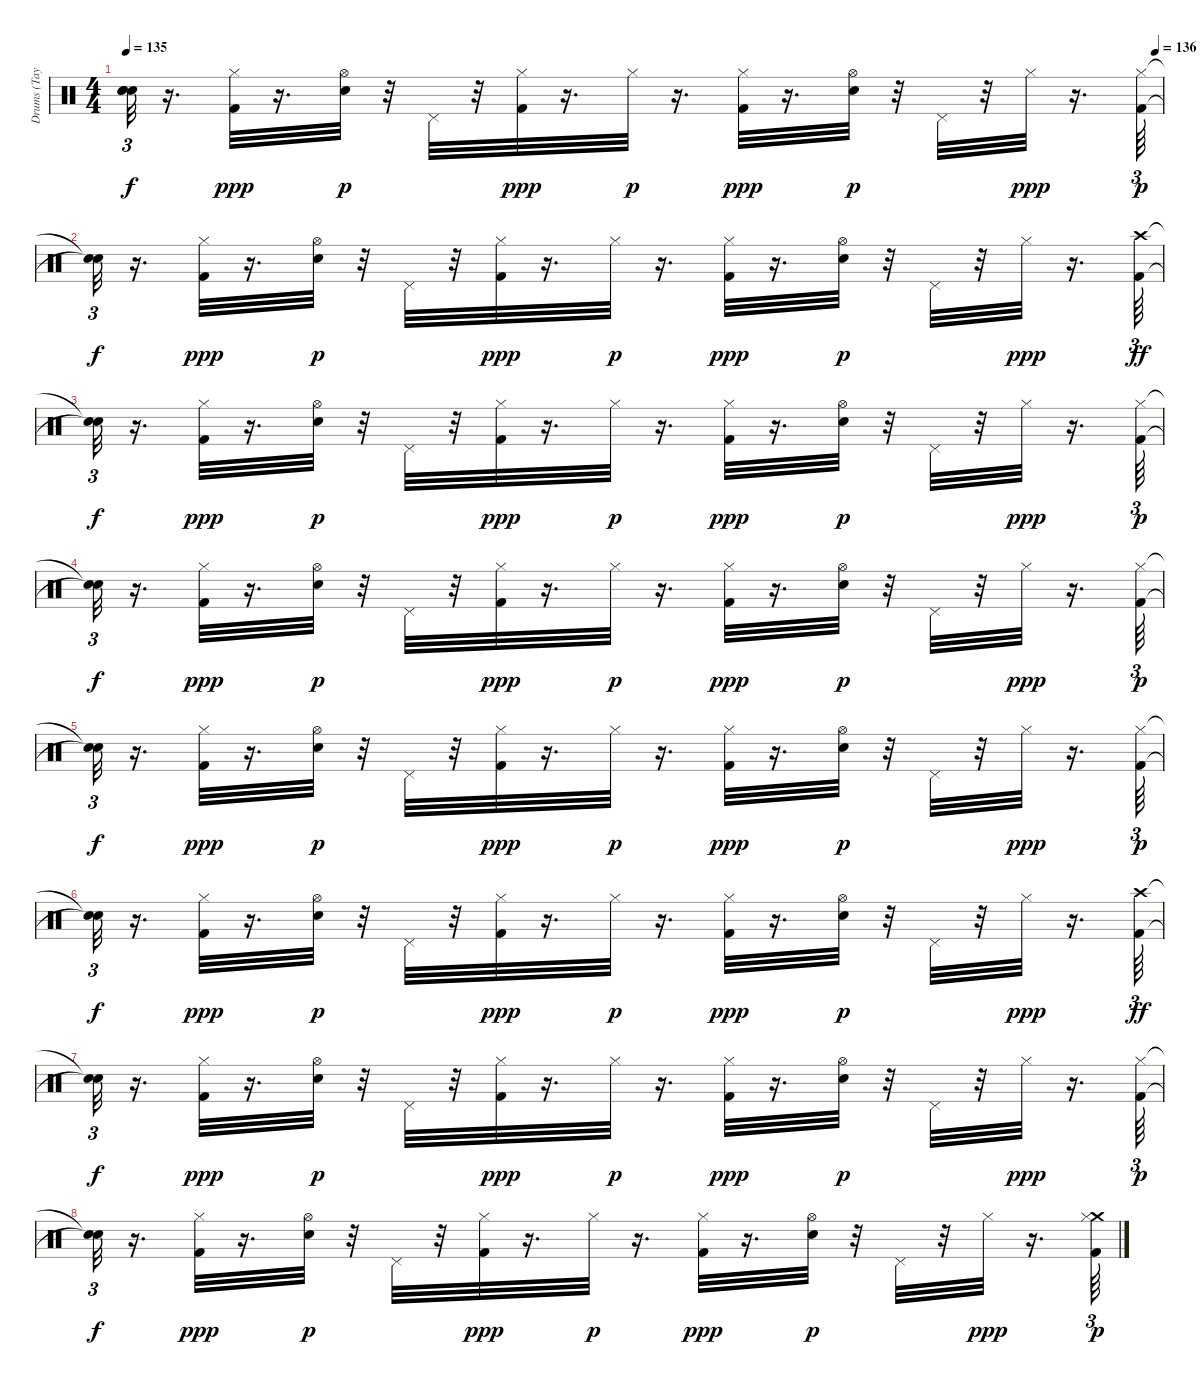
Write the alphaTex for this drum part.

\track ("Drums (Taylor)" "Drums (Tay") {instrument percussion}
\staff {score}
\articulation defaults
\ts (4 4)
\tempo 135
\tempo (136 0.99375)
\clef neutral
\ks c
("Snare (hit)"{t} "Snare (hit)"{t} "Snare (hit)"{t}).32{tu (3 2) dy f} r.16{d} ("Kick (hit) 2" "Hi-Hat (closed)").32{dy ppp} r.16{d} ("Snare (hit) 2" "Hi-Hat (open)").32{dy p} r.32 "Pedal Hi-Hat (hit)".32 r.32 ("Kick (hit) 2" "Hi-Hat (closed)").32{dy ppp} r.16{d} "Hi-Hat (closed)".32{dy p} r.16{d} ("Kick (hit) 2" "Hi-Hat (closed)").32{dy ppp} r.16{d} ("Snare (hit) 2" "Hi-Hat (open)").32{dy p} r.32 "Pedal Hi-Hat (hit)".32 r.32 "Hi-Hat (closed)".32{dy ppp} r.16{d} ("Kick (hit) 2" "Hi-Hat (closed)").64{tu (3 2) dy p} |
("Snare (hit)"{t} "Snare (hit)"{t}).32{tu (3 2) dy f} r.16{d} ("Kick (hit) 2" "Hi-Hat (closed)").32{dy ppp} r.16{d} ("Snare (hit) 2" "Hi-Hat (open)").32{dy p} r.32 "Pedal Hi-Hat (hit)".32 r.32 ("Kick (hit) 2" "Hi-Hat (closed)").32{dy ppp} r.16{d} "Hi-Hat (closed)".32{dy p} r.16{d} ("Kick (hit) 2" "Hi-Hat (closed)").32{dy ppp} r.16{d} ("Snare (hit) 2" "Hi-Hat (open)").32{dy p} r.32 "Pedal Hi-Hat (hit)".32 r.32 "Hi-Hat (closed)".32{dy ppp} r.16{d} ("Kick (hit) 2" "Crash high (hit)").64{tu (3 2) dy ff} |
("Snare (hit)"{t} "Snare (hit)"{t}).32{tu (3 2) dy f} r.16{d} ("Kick (hit) 2" "Hi-Hat (closed)").32{dy ppp} r.16{d} ("Snare (hit) 2" "Hi-Hat (open)").32{dy p} r.32 "Pedal Hi-Hat (hit)".32 r.32 ("Kick (hit) 2" "Hi-Hat (closed)").32{dy ppp} r.16{d} "Hi-Hat (closed)".32{dy p} r.16{d} ("Kick (hit) 2" "Hi-Hat (closed)").32{dy ppp} r.16{d} ("Snare (hit) 2" "Hi-Hat (open)").32{dy p} r.32 "Pedal Hi-Hat (hit)".32 r.32 "Hi-Hat (closed)".32{dy ppp} r.16{d} ("Kick (hit) 2" "Hi-Hat (closed)").64{tu (3 2) dy p} |
("Snare (hit)"{t} "Snare (hit)"{t}).32{tu (3 2) dy f} r.16{d} ("Kick (hit) 2" "Hi-Hat (closed)").32{dy ppp} r.16{d} ("Snare (hit) 2" "Hi-Hat (open)").32{dy p} r.32 "Pedal Hi-Hat (hit)".32 r.32 ("Kick (hit) 2" "Hi-Hat (closed)").32{dy ppp} r.16{d} "Hi-Hat (closed)".32{dy p} r.16{d} ("Kick (hit) 2" "Hi-Hat (closed)").32{dy ppp} r.16{d} ("Snare (hit) 2" "Hi-Hat (open)").32{dy p} r.32 "Pedal Hi-Hat (hit)".32 r.32 "Hi-Hat (closed)".32{dy ppp} r.16{d} ("Kick (hit) 2" "Hi-Hat (closed)").64{tu (3 2) dy p} |
("Snare (hit)"{t} "Snare (hit)"{t}).32{tu (3 2) dy f} r.16{d} ("Kick (hit) 2" "Hi-Hat (closed)").32{dy ppp} r.16{d} ("Snare (hit) 2" "Hi-Hat (open)").32{dy p} r.32 "Pedal Hi-Hat (hit)".32 r.32 ("Kick (hit) 2" "Hi-Hat (closed)").32{dy ppp} r.16{d} "Hi-Hat (closed)".32{dy p} r.16{d} ("Kick (hit) 2" "Hi-Hat (closed)").32{dy ppp} r.16{d} ("Snare (hit) 2" "Hi-Hat (open)").32{dy p} r.32 "Pedal Hi-Hat (hit)".32 r.32 "Hi-Hat (closed)".32{dy ppp} r.16{d} ("Kick (hit) 2" "Hi-Hat (closed)").64{tu (3 2) dy p} |
("Snare (hit)"{t} "Snare (hit)"{t}).32{tu (3 2) dy f} r.16{d} ("Kick (hit) 2" "Hi-Hat (closed)").32{dy ppp} r.16{d} ("Snare (hit) 2" "Hi-Hat (open)").32{dy p} r.32 "Pedal Hi-Hat (hit)".32 r.32 ("Kick (hit) 2" "Hi-Hat (closed)").32{dy ppp} r.16{d} "Hi-Hat (closed)".32{dy p} r.16{d} ("Kick (hit) 2" "Hi-Hat (closed)").32{dy ppp} r.16{d} ("Snare (hit) 2" "Hi-Hat (open)").32{dy p} r.32 "Pedal Hi-Hat (hit)".32 r.32 "Hi-Hat (closed)".32{dy ppp} r.16{d} ("Kick (hit) 2" "Crash high (hit)").64{tu (3 2) dy ff} |
("Snare (hit)"{t} "Snare (hit)"{t}).32{tu (3 2) dy f} r.16{d} ("Kick (hit) 2" "Hi-Hat (closed)").32{dy ppp} r.16{d} ("Snare (hit) 2" "Hi-Hat (open)").32{dy p} r.32 "Pedal Hi-Hat (hit)".32 r.32 ("Kick (hit) 2" "Hi-Hat (closed)").32{dy ppp} r.16{d} "Hi-Hat (closed)".32{dy p} r.16{d} ("Kick (hit) 2" "Hi-Hat (closed)").32{dy ppp} r.16{d} ("Snare (hit) 2" "Hi-Hat (open)").32{dy p} r.32 "Pedal Hi-Hat (hit)".32 r.32 "Hi-Hat (closed)".32{dy ppp} r.16{d} ("Kick (hit) 2" "Hi-Hat (closed)").64{tu (3 2) dy p} |
("Snare (hit)"{t} "Snare (hit)"{t}).32{tu (3 2) dy f} r.16{d} ("Kick (hit) 2" "Hi-Hat (closed)").32{dy ppp} r.16{d} ("Snare (hit) 2" "Hi-Hat (open)").32{dy p} r.32 "Pedal Hi-Hat (hit)".32 r.32 ("Kick (hit) 2" "Hi-Hat (closed)").32{dy ppp} r.16{d} "Hi-Hat (closed)".32{dy p} r.16{d} ("Kick (hit) 2" "Hi-Hat (closed)").32{dy ppp} r.16{d} ("Snare (hit) 2" "Hi-Hat (open)").32{dy p} r.32 "Pedal Hi-Hat (hit)".32 r.32 "Hi-Hat (closed)".32{dy ppp} r.16{d} ("Crash medium (hit)" "Kick (hit) 2" "Hi-Hat (closed)").64{tu (3 2) dy p}
